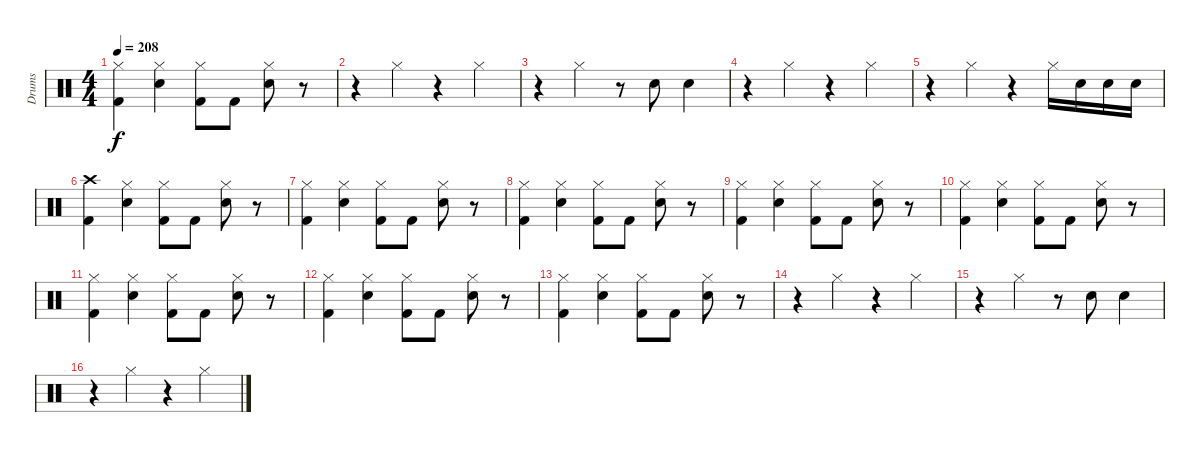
\track ("Drums" "Drums") {instrument percussion}
\staff {score}
\articulation defaults
\ts (4 4)
\tempo 208
\clef neutral
\ks c
("Hi-Hat (closed)" "Kick (hit) 2").4{dy f} ("Hi-Hat (closed)" "Snare (hit) 2").4 ("Hi-Hat (closed)" "Kick (hit) 2").8 "Kick (hit) 2".8 ("Hi-Hat (closed)" "Snare (hit) 2").8 r.8 |
r.4 "Hi-Hat (closed)".4 r.4 "Hi-Hat (closed)".4 |
r.4 "Hi-Hat (closed)".4 r.8 "Snare (hit) 2".8 "Snare (hit) 2".4 |
r.4 "Hi-Hat (closed)".4 r.4 "Hi-Hat (closed)".4 |
r.4 "Hi-Hat (closed)".4 r.4 "Hi-Hat (closed)".16 "Snare (hit) 2".16 "Snare (hit) 2".16 "Snare (hit) 2".16 |
("Crash high (hit)" "Kick (hit) 2").4 ("Hi-Hat (closed)" "Snare (hit) 2").4 ("Hi-Hat (closed)" "Kick (hit) 2").8 "Kick (hit) 2".8 ("Hi-Hat (closed)" "Snare (hit) 2").8 r.8 |
("Hi-Hat (closed)" "Kick (hit) 2").4 ("Hi-Hat (closed)" "Snare (hit) 2").4 ("Hi-Hat (closed)" "Kick (hit) 2").8 "Kick (hit) 2".8 ("Hi-Hat (closed)" "Snare (hit) 2").8 r.8 |
("Hi-Hat (closed)" "Kick (hit) 2").4 ("Hi-Hat (closed)" "Snare (hit) 2").4 ("Hi-Hat (closed)" "Kick (hit) 2").8 "Kick (hit) 2".8 ("Hi-Hat (closed)" "Snare (hit) 2").8 r.8 |
("Hi-Hat (closed)" "Kick (hit) 2").4 ("Hi-Hat (closed)" "Snare (hit) 2").4 ("Hi-Hat (closed)" "Kick (hit) 2").8 "Kick (hit) 2".8 ("Hi-Hat (closed)" "Snare (hit) 2").8 r.8 |
("Hi-Hat (closed)" "Kick (hit) 2").4 ("Hi-Hat (closed)" "Snare (hit) 2").4 ("Hi-Hat (closed)" "Kick (hit) 2").8 "Kick (hit) 2".8 ("Hi-Hat (closed)" "Snare (hit) 2").8 r.8 |
("Hi-Hat (closed)" "Kick (hit) 2").4 ("Hi-Hat (closed)" "Snare (hit) 2").4 ("Hi-Hat (closed)" "Kick (hit) 2").8 "Kick (hit) 2".8 ("Hi-Hat (closed)" "Snare (hit) 2").8 r.8 |
("Hi-Hat (closed)" "Kick (hit) 2").4 ("Hi-Hat (closed)" "Snare (hit) 2").4 ("Hi-Hat (closed)" "Kick (hit) 2").8 "Kick (hit) 2".8 ("Hi-Hat (closed)" "Snare (hit) 2").8 r.8 |
("Hi-Hat (closed)" "Kick (hit) 2").4 ("Hi-Hat (closed)" "Snare (hit) 2").4 ("Hi-Hat (closed)" "Kick (hit) 2").8 "Kick (hit) 2".8 ("Hi-Hat (closed)" "Snare (hit) 2").8 r.8 |
r.4 "Hi-Hat (closed)".4 r.4 "Hi-Hat (closed)".4 |
r.4 "Hi-Hat (closed)".4 r.8 "Snare (hit) 2".8 "Snare (hit) 2".4 |
r.4 "Hi-Hat (closed)".4 r.4 "Hi-Hat (closed)".4
